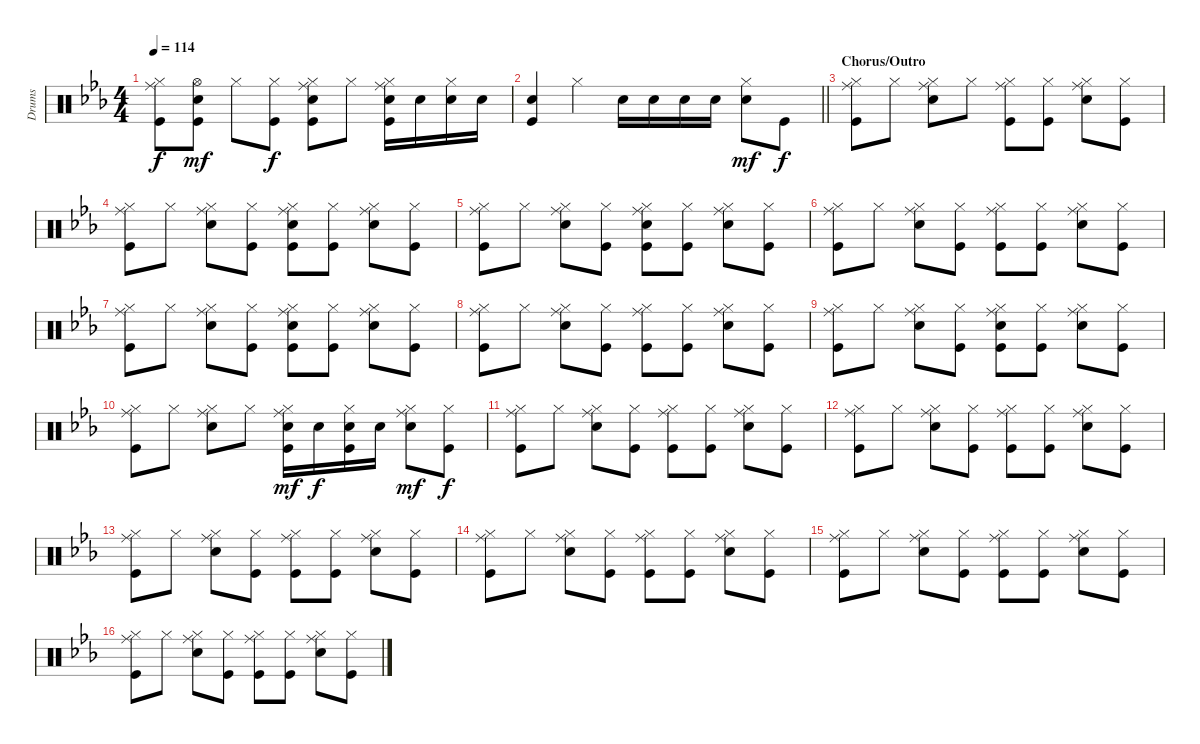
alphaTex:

\track ("Drums" "Drums") {instrument percussion}
\staff {score}
\articulation defaults
\ts (4 4)
\tempo 114
\clef neutral
\ks eb
("Hi-Hat (closed)" "Ride (middle)" "Kick (hit)").8{dy f} ("Hi-Hat (open)" "Snare (hit) 2" "Kick (hit)").8{dy mf} "Hi-Hat (closed)".8 ("Hi-Hat (closed)" "Kick (hit)").8{dy f} ("Hi-Hat (closed)" "Ride (middle)" "Snare (hit) 2" "Kick (hit)").8 "Hi-Hat (closed)".8 ("Hi-Hat (closed)" "Ride (middle)" "Snare (hit) 2" "Kick (hit)").16 "Snare (hit) 2".16 ("Hi-Hat (closed)" "Snare (hit) 2").16 "Snare (hit) 2".16 |
\barLineRight lightlight
("Snare (hit) 2" "Kick (hit)").4 "Hi-Hat (closed)".4 "Snare (hit) 2".16 "Snare (hit) 2".16 "Snare (hit) 2".16 "Snare (hit) 2".16 ("Hi-Hat (closed)" "Snare (hit) 2").8{dy mf} "Kick (hit)".8{dy f} |
\section ("" "Chorus/Outro")
("Hi-Hat (closed)" "Ride (middle)" "Kick (hit)").8 "Hi-Hat (closed)".8 ("Hi-Hat (closed)" "Ride (middle)" "Snare (hit) 2").8 "Hi-Hat (closed)".8 ("Hi-Hat (closed)" "Ride (middle)" "Kick (hit)").8 ("Hi-Hat (closed)" "Kick (hit)").8 ("Hi-Hat (closed)" "Ride (middle)" "Snare (hit) 2").8 ("Hi-Hat (closed)" "Kick (hit)").8 |
("Hi-Hat (closed)" "Ride (middle)" "Kick (hit)").8 "Hi-Hat (closed)".8 ("Hi-Hat (closed)" "Ride (middle)" "Snare (hit) 2").8 ("Hi-Hat (closed)" "Kick (hit)").8 ("Hi-Hat (closed)" "Ride (middle)" "Snare (hit) 2" "Kick (hit)").8 ("Hi-Hat (closed)" "Kick (hit)").8 ("Hi-Hat (closed)" "Ride (middle)" "Snare (hit) 2").8 ("Hi-Hat (closed)" "Kick (hit)").8 |
("Hi-Hat (closed)" "Ride (middle)" "Kick (hit)").8 "Hi-Hat (closed)".8 ("Hi-Hat (closed)" "Ride (middle)" "Snare (hit) 2").8 ("Hi-Hat (closed)" "Kick (hit)").8 ("Hi-Hat (closed)" "Ride (middle)" "Snare (hit) 2" "Kick (hit)").8 ("Hi-Hat (closed)" "Kick (hit)").8 ("Hi-Hat (closed)" "Ride (middle)" "Snare (hit) 2").8 ("Hi-Hat (closed)" "Kick (hit)").8 |
("Hi-Hat (closed)" "Ride (middle)" "Kick (hit)").8 "Hi-Hat (closed)".8 ("Hi-Hat (closed)" "Ride (middle)" "Snare (hit) 2").8 ("Hi-Hat (closed)" "Kick (hit)").8 ("Hi-Hat (closed)" "Ride (middle)" "Kick (hit)").8 ("Hi-Hat (closed)" "Kick (hit)").8 ("Hi-Hat (closed)" "Ride (middle)" "Snare (hit) 2").8 ("Hi-Hat (closed)" "Kick (hit)").8 |
("Hi-Hat (closed)" "Ride (middle)" "Kick (hit)").8 "Hi-Hat (closed)".8 ("Hi-Hat (closed)" "Ride (middle)" "Snare (hit) 2").8 ("Hi-Hat (closed)" "Kick (hit)").8 ("Hi-Hat (closed)" "Ride (middle)" "Snare (hit) 2" "Kick (hit)").8 ("Hi-Hat (closed)" "Kick (hit)").8 ("Hi-Hat (closed)" "Ride (middle)" "Snare (hit) 2").8 ("Hi-Hat (closed)" "Kick (hit)").8 |
("Hi-Hat (closed)" "Ride (middle)" "Kick (hit)").8 "Hi-Hat (closed)".8 ("Hi-Hat (closed)" "Ride (middle)" "Snare (hit) 2").8 ("Hi-Hat (closed)" "Kick (hit)").8 ("Hi-Hat (closed)" "Ride (middle)" "Kick (hit)").8 ("Hi-Hat (closed)" "Kick (hit)").8 ("Hi-Hat (closed)" "Ride (middle)" "Snare (hit) 2").8 ("Hi-Hat (closed)" "Kick (hit)").8 |
("Hi-Hat (closed)" "Ride (middle)" "Kick (hit)").8 "Hi-Hat (closed)".8 ("Hi-Hat (closed)" "Ride (middle)" "Snare (hit) 2").8 ("Hi-Hat (closed)" "Kick (hit)").8 ("Hi-Hat (closed)" "Ride (middle)" "Snare (hit) 2" "Kick (hit)").8 ("Hi-Hat (closed)" "Kick (hit)").8 ("Hi-Hat (closed)" "Ride (middle)" "Snare (hit) 2").8 ("Hi-Hat (closed)" "Kick (hit)").8 |
("Hi-Hat (closed)" "Ride (middle)" "Kick (hit)").8 "Hi-Hat (closed)".8 ("Hi-Hat (closed)" "Ride (middle)" "Snare (hit) 2").8 "Hi-Hat (closed)".8 ("Hi-Hat (closed)" "Ride (middle)" "Snare (hit) 2" "Kick (hit)").16{dy mf} "Snare (hit) 2".16{dy f} ("Hi-Hat (closed)" "Snare (hit) 2" "Kick (hit)").16 "Snare (hit) 2".16 ("Hi-Hat (closed)" "Ride (middle)" "Snare (hit) 2").8{dy mf} ("Hi-Hat (closed)" "Kick (hit)").8{dy f} |
("Hi-Hat (closed)" "Ride (middle)" "Kick (hit)").8 "Hi-Hat (closed)".8 ("Hi-Hat (closed)" "Ride (middle)" "Snare (hit) 2").8 ("Hi-Hat (closed)" "Kick (hit)").8 ("Hi-Hat (closed)" "Ride (middle)" "Kick (hit)").8 ("Hi-Hat (closed)" "Kick (hit)").8 ("Hi-Hat (closed)" "Ride (middle)" "Snare (hit) 2").8 ("Hi-Hat (closed)" "Kick (hit)").8 |
("Hi-Hat (closed)" "Ride (middle)" "Kick (hit)").8 "Hi-Hat (closed)".8 ("Hi-Hat (closed)" "Ride (middle)" "Snare (hit) 2").8 ("Hi-Hat (closed)" "Kick (hit)").8 ("Hi-Hat (closed)" "Ride (middle)" "Kick (hit)").8 ("Hi-Hat (closed)" "Kick (hit)").8 ("Hi-Hat (closed)" "Ride (middle)" "Snare (hit) 2").8 ("Hi-Hat (closed)" "Kick (hit)").8 |
("Hi-Hat (closed)" "Ride (middle)" "Kick (hit)").8 "Hi-Hat (closed)".8 ("Hi-Hat (closed)" "Ride (middle)" "Snare (hit) 2").8 ("Hi-Hat (closed)" "Kick (hit)").8 ("Hi-Hat (closed)" "Ride (middle)" "Kick (hit)").8 ("Hi-Hat (closed)" "Kick (hit)").8 ("Hi-Hat (closed)" "Ride (middle)" "Snare (hit) 2").8 ("Hi-Hat (closed)" "Kick (hit)").8 |
("Hi-Hat (closed)" "Ride (middle)" "Kick (hit)").8 "Hi-Hat (closed)".8 ("Hi-Hat (closed)" "Ride (middle)" "Snare (hit) 2").8 ("Hi-Hat (closed)" "Kick (hit)").8 ("Hi-Hat (closed)" "Ride (middle)" "Kick (hit)").8 ("Hi-Hat (closed)" "Kick (hit)").8 ("Hi-Hat (closed)" "Ride (middle)" "Snare (hit) 2").8 ("Hi-Hat (closed)" "Kick (hit)").8 |
("Hi-Hat (closed)" "Ride (middle)" "Kick (hit)").8 "Hi-Hat (closed)".8 ("Hi-Hat (closed)" "Ride (middle)" "Snare (hit) 2").8 ("Hi-Hat (closed)" "Kick (hit)").8 ("Hi-Hat (closed)" "Ride (middle)" "Kick (hit)").8 ("Hi-Hat (closed)" "Kick (hit)").8 ("Hi-Hat (closed)" "Ride (middle)" "Snare (hit) 2").8 ("Hi-Hat (closed)" "Kick (hit)").8 |
("Hi-Hat (closed)" "Ride (middle)" "Kick (hit)").8 "Hi-Hat (closed)".8 ("Hi-Hat (closed)" "Ride (middle)" "Snare (hit) 2").8 ("Hi-Hat (closed)" "Kick (hit)").8 ("Hi-Hat (closed)" "Ride (middle)" "Kick (hit)").8 ("Hi-Hat (closed)" "Kick (hit)").8 ("Hi-Hat (closed)" "Ride (middle)" "Snare (hit) 2").8 ("Hi-Hat (closed)" "Kick (hit)").8
